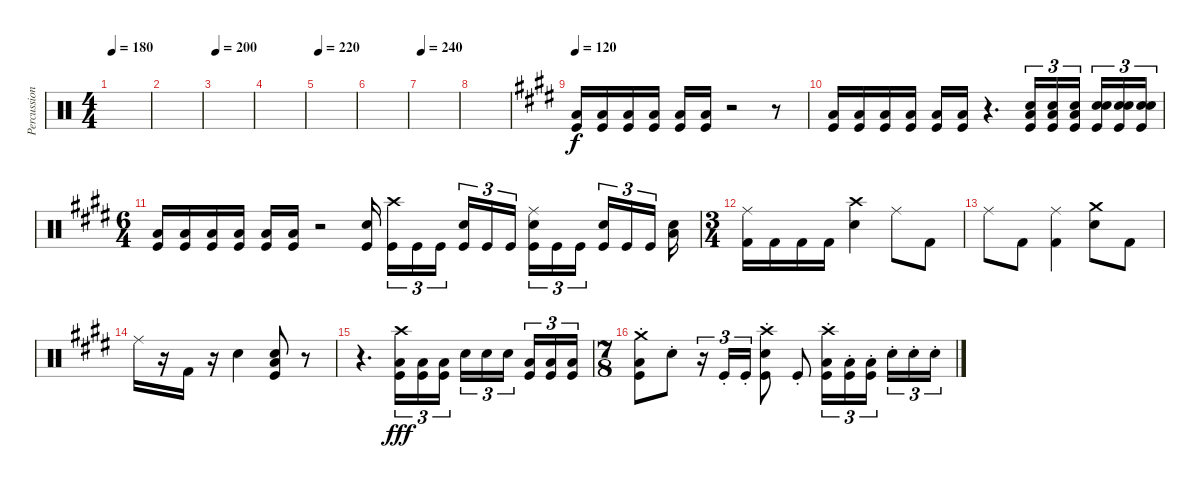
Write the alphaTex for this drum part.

\track ("Percussion" "Percussion") {instrument percussion}
\staff {score}
\articulation defaults
\ts (4 4)
\tempo 180
\clef neutral
\ks c
|
|
\tempo 180
\tempo 200
|
|
\tempo 200
\tempo 220
|
|
\tempo 220
\tempo 240
|
|
\tempo 120
\ks e
("Kick (hit)" "Low Floor Tom (hit)").16 ("Kick (hit)" "Low Floor Tom (hit)").16 ("Kick (hit)" "Low Floor Tom (hit)").16 ("Kick (hit)" "Low Floor Tom (hit)").16 ("Kick (hit)" "Low Floor Tom (hit)").16 ("Kick (hit)" "Low Floor Tom (hit)").16 r.2 r.8 |
("Kick (hit)" "Low Floor Tom (hit)").16 ("Kick (hit)" "Low Floor Tom (hit)").16 ("Kick (hit)" "Low Floor Tom (hit)").16 ("Kick (hit)" "Low Floor Tom (hit)").16 ("Kick (hit)" "Low Floor Tom (hit)").16 ("Kick (hit)" "Low Floor Tom (hit)").16 r.4{d} ("Kick (hit)" "Low Floor Tom (hit)" "Electric Snare (hit)").16{tu (3 2)} ("Kick (hit)" "Low Floor Tom (hit)" "Electric Snare (hit)").16{tu (3 2)} ("Kick (hit)" "Low Floor Tom (hit)" "Electric Snare (hit)").16{tu (3 2) beam splitsecondary} ("Electric Snare (hit)" "Electric Snare (hit)" "Kick (hit)").16{tu (3 2)} ("Electric Snare (hit)" "Electric Snare (hit)" "Kick (hit)").16{tu (3 2)} ("Electric Snare (hit)" "Electric Snare (hit)" "Kick (hit)").16{tu (3 2)} |
\ts (6 4)
("Kick (hit)" "Low Floor Tom (hit)").16 ("Kick (hit)" "Low Floor Tom (hit)").16 ("Kick (hit)" "Low Floor Tom (hit)").16 ("Kick (hit)" "Low Floor Tom (hit)").16 ("Kick (hit)" "Low Floor Tom (hit)").16 ("Kick (hit)" "Low Floor Tom (hit)").16 r.2 ("Kick (hit)" "Electric Snare (hit)").16{beam splitsecondary} ("Kick (hit)" "Crash high (hit)").16{tu (3 2)} "Kick (hit)".16{tu (3 2)} "Kick (hit)".16{tu (3 2) beam splitsecondary} ("Kick (hit)" "Electric Snare (hit)").16{tu (3 2)} "Kick (hit)".16{tu (3 2)} "Kick (hit)".16{tu (3 2) beam splitsecondary} ("Kick (hit)" "Electric Snare (hit)" "Ride (middle)").16{tu (3 2)} "Kick (hit)".16{tu (3 2)} "Kick (hit)".16{tu (3 2) beam splitsecondary} ("Kick (hit)" "Electric Snare (hit)").16{tu (3 2)} "Kick (hit)".16{tu (3 2)} "Kick (hit)".16{tu (3 2) beam splitsecondary} ("Low Floor Tom (hit)" "Electric Snare (hit)").16 |
\ts (3 4)
("Ride (middle)" "Kick (hit) 2").16 "Kick (hit) 2".16 "Kick (hit) 2".16 "Kick (hit) 2".16 ("Crash high (hit)" "Electric Snare (hit)").4 "Ride (middle)".8 "Kick (hit) 2".8 |
"Ride (middle)".8 "Kick (hit) 2".8 ("Ride (middle)" "Kick (hit) 2").4 ("Crash medium (hit)" "Electric Snare (hit)").8 "Kick (hit) 2".8 |
"Ride (middle)".16 r.16 "Kick (hit) 2".16 r.16 "Electric Snare (hit)".4 ("Kick (hit)" "Low Floor Tom (hit)" "Electric Snare (hit)").8{dy f} r.8 |
r.4{d} ("Crash high (hit)" "Low Floor Tom (hit)" "Kick (hit)").16{tu (3 2) dy fff} ("Low Floor Tom (hit)" "Kick (hit)").16{tu (3 2)} ("Low Floor Tom (hit)" "Kick (hit)").16{tu (3 2)} "Electric Snare (hit)".16{tu (3 2)} "Electric Snare (hit)".16{tu (3 2)} "Electric Snare (hit)".16{tu (3 2) beam splitsecondary} ("Low Floor Tom (hit)" "Kick (hit)").16{tu (3 2)} ("Low Floor Tom (hit)" "Kick (hit)").16{tu (3 2)} ("Low Floor Tom (hit)" "Kick (hit)").16{tu (3 2)} |
\ts (7 8)
("Crash medium (hit)"{st} "Kick (hit)"{st} "Low Floor Tom (hit)"{st}).8 "Electric Snare (hit)"{st}.8 r.16{tu (3 2)} "Kick (hit)"{st}.16{tu (3 2)} "Kick (hit)"{st}.16{tu (3 2)} ("Electric Snare (hit)"{st} "Crash high (hit)"{st} "Kick (hit)"{st}).8 "Kick (hit)"{st}.8 ("Crash high (hit)"{st} "Kick (hit)"{st} "Low Floor Tom (hit)"{st}).16{tu (3 2)} ("Kick (hit)"{st} "Low Floor Tom (hit)"{st}).16{tu (3 2)} ("Kick (hit)"{st} "Low Floor Tom (hit)"{st}).16{tu (3 2)} "Electric Snare (hit)"{st}.16{tu (3 2)} "Electric Snare (hit)"{st}.16{tu (3 2)} "Electric Snare (hit)"{st}.16{tu (3 2)}
